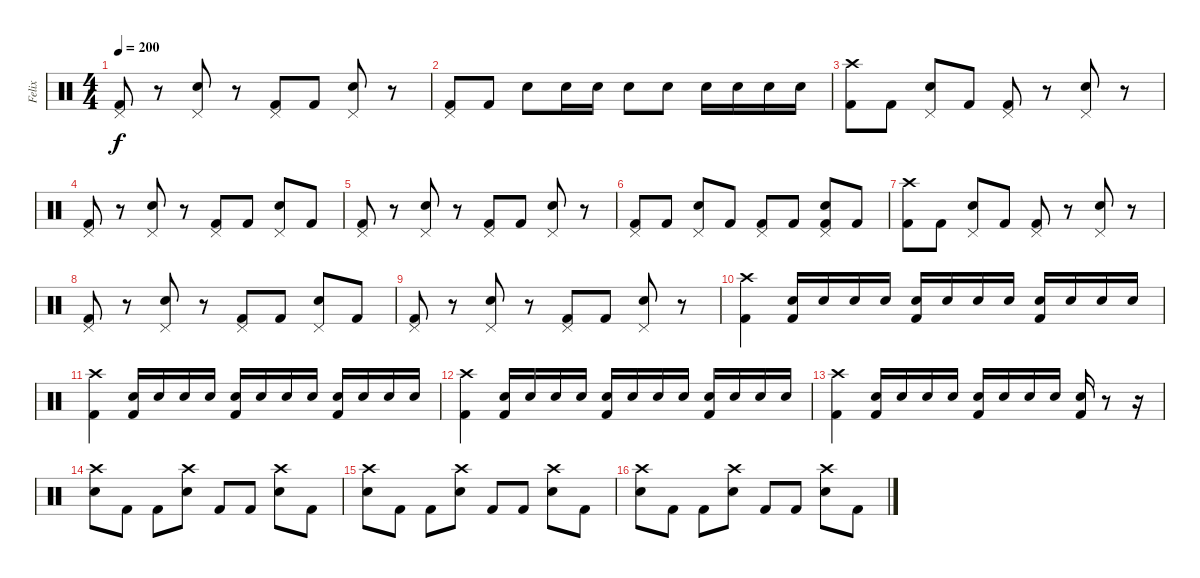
\track ("Felix" "Felix") {instrument percussion}
\staff {score}
\articulation defaults
\ts (4 4)
\tempo 200
\clef neutral
\ks c
("Pedal Hi-Hat (hit)" "Kick (hit) 2").8{dy f} r.8 ("Pedal Hi-Hat (hit)" "Electric Snare (hit)").8 r.8 ("Pedal Hi-Hat (hit)" "Kick (hit) 2").8 "Kick (hit) 2".8 ("Pedal Hi-Hat (hit)" "Electric Snare (hit)").8 r.8 |
("Pedal Hi-Hat (hit)" "Kick (hit) 2").8 "Kick (hit) 2".8 "Electric Snare (hit)".8 "Electric Snare (hit)".16 "Electric Snare (hit)".16 "Electric Snare (hit)".8 "Electric Snare (hit)".8 "Electric Snare (hit)".16 "Electric Snare (hit)".16 "Electric Snare (hit)".16 "Electric Snare (hit)".16 |
("Crash high (hit)" "Kick (hit) 2").8 "Kick (hit) 2".8 ("Pedal Hi-Hat (hit)" "Electric Snare (hit)").8 "Kick (hit) 2".8 ("Pedal Hi-Hat (hit)" "Kick (hit) 2").8 r.8 ("Pedal Hi-Hat (hit)" "Electric Snare (hit)").8 r.8 |
("Pedal Hi-Hat (hit)" "Kick (hit) 2").8 r.8 ("Pedal Hi-Hat (hit)" "Electric Snare (hit)").8 r.8 ("Pedal Hi-Hat (hit)" "Kick (hit) 2").8 "Kick (hit) 2".8 ("Pedal Hi-Hat (hit)" "Electric Snare (hit)").8 "Kick (hit) 2".8 |
("Pedal Hi-Hat (hit)" "Kick (hit) 2").8 r.8 ("Pedal Hi-Hat (hit)" "Electric Snare (hit)").8 r.8 ("Pedal Hi-Hat (hit)" "Kick (hit) 2").8 "Kick (hit) 2".8 ("Pedal Hi-Hat (hit)" "Electric Snare (hit)").8 r.8 |
("Pedal Hi-Hat (hit)" "Kick (hit) 2").8 "Kick (hit) 2".8 ("Pedal Hi-Hat (hit)" "Electric Snare (hit)").8 "Kick (hit) 2".8 ("Pedal Hi-Hat (hit)" "Kick (hit) 2").8 "Kick (hit) 2".8 ("Pedal Hi-Hat (hit)" "Electric Snare (hit)" "Kick (hit) 2").8 "Kick (hit) 2".8 |
("Crash high (hit)" "Kick (hit) 2").8 "Kick (hit) 2".8 ("Pedal Hi-Hat (hit)" "Electric Snare (hit)").8 "Kick (hit) 2".8 ("Pedal Hi-Hat (hit)" "Kick (hit) 2").8 r.8 ("Pedal Hi-Hat (hit)" "Electric Snare (hit)").8 r.8 |
("Pedal Hi-Hat (hit)" "Kick (hit) 2").8 r.8 ("Pedal Hi-Hat (hit)" "Electric Snare (hit)").8 r.8 ("Pedal Hi-Hat (hit)" "Kick (hit) 2").8 "Kick (hit) 2".8 ("Pedal Hi-Hat (hit)" "Electric Snare (hit)").8 "Kick (hit) 2".8 |
("Pedal Hi-Hat (hit)" "Kick (hit) 2").8 r.8 ("Pedal Hi-Hat (hit)" "Electric Snare (hit)").8 r.8 ("Pedal Hi-Hat (hit)" "Kick (hit) 2").8 "Kick (hit) 2".8 ("Pedal Hi-Hat (hit)" "Electric Snare (hit)").8 r.8 |
("Crash high (hit)" "Kick (hit) 2").4 ("Electric Snare (hit)" "Kick (hit) 2").16 "Electric Snare (hit)".16 "Electric Snare (hit)".16 "Electric Snare (hit)".16 ("Electric Snare (hit)" "Kick (hit) 2").16 "Electric Snare (hit)".16 "Electric Snare (hit)".16 "Electric Snare (hit)".16 ("Electric Snare (hit)" "Kick (hit) 2").16 "Electric Snare (hit)".16 "Electric Snare (hit)".16 "Electric Snare (hit)".16 |
("Crash high (hit)" "Kick (hit) 2").4 ("Electric Snare (hit)" "Kick (hit) 2").16 "Electric Snare (hit)".16 "Electric Snare (hit)".16 "Electric Snare (hit)".16 ("Electric Snare (hit)" "Kick (hit) 2").16 "Electric Snare (hit)".16 "Electric Snare (hit)".16 "Electric Snare (hit)".16 ("Electric Snare (hit)" "Kick (hit) 2").16 "Electric Snare (hit)".16 "Electric Snare (hit)".16 "Electric Snare (hit)".16 |
("Crash high (hit)" "Kick (hit) 2").4 ("Electric Snare (hit)" "Kick (hit) 2").16 "Electric Snare (hit)".16 "Electric Snare (hit)".16 "Electric Snare (hit)".16 ("Electric Snare (hit)" "Kick (hit) 2").16 "Electric Snare (hit)".16 "Electric Snare (hit)".16 "Electric Snare (hit)".16 ("Electric Snare (hit)" "Kick (hit) 2").16 "Electric Snare (hit)".16 "Electric Snare (hit)".16 "Electric Snare (hit)".16 |
("Crash high (hit)" "Kick (hit) 2").4 ("Electric Snare (hit)" "Kick (hit) 2").16 "Electric Snare (hit)".16 "Electric Snare (hit)".16 "Electric Snare (hit)".16 ("Electric Snare (hit)" "Kick (hit) 2").16 "Electric Snare (hit)".16 "Electric Snare (hit)".16 "Electric Snare (hit)".16 ("Electric Snare (hit)" "Kick (hit) 2").16 r.8 r.16 |
("Crash high (hit)" "Electric Snare (hit)").8 "Kick (hit) 2".8 "Kick (hit) 2".8 ("Crash high (hit)" "Electric Snare (hit)").8 "Kick (hit) 2".8 "Kick (hit) 2".8 ("Crash high (hit)" "Electric Snare (hit)").8 "Kick (hit) 2".8 |
("Crash high (hit)" "Electric Snare (hit)").8 "Kick (hit) 2".8 "Kick (hit) 2".8 ("Crash high (hit)" "Electric Snare (hit)").8 "Kick (hit) 2".8 "Kick (hit) 2".8 ("Crash high (hit)" "Electric Snare (hit)").8 "Kick (hit) 2".8 |
("Crash high (hit)" "Electric Snare (hit)").8 "Kick (hit) 2".8 "Kick (hit) 2".8 ("Crash high (hit)" "Electric Snare (hit)").8 "Kick (hit) 2".8 "Kick (hit) 2".8 ("Crash high (hit)" "Electric Snare (hit)").8 "Kick (hit) 2".8
